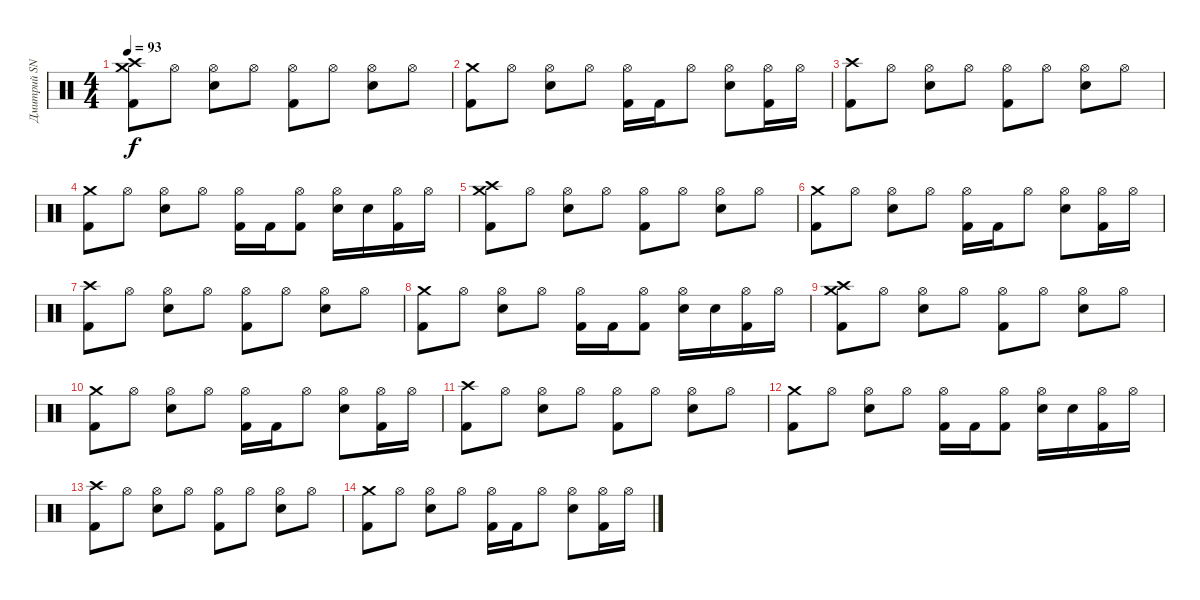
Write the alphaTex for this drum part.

\track ("Дмитрий SNAKE Хакимов" "Дмитрий SN") {instrument percussion}
\staff {score}
\articulation defaults
\ts (4 4)
\tempo 93
\clef neutral
\ks c
("Crash high (hit)" "Crash medium (hit)" "Kick (hit) 2").8{dy f} "Hi-Hat (open)".8 ("Hi-Hat (open)" "Electric Snare (hit)").8 "Hi-Hat (open)".8 ("Hi-Hat (open)" "Kick (hit) 2").8 "Hi-Hat (open)".8 ("Hi-Hat (open)" "Electric Snare (hit)").8 "Hi-Hat (open)".8 |
("Crash medium (hit)" "Kick (hit) 2").8 "Hi-Hat (open)".8 ("Hi-Hat (open)" "Electric Snare (hit)").8 "Hi-Hat (open)".8 ("Hi-Hat (open)" "Kick (hit) 2").16 "Kick (hit) 2".16 "Hi-Hat (open)".8 ("Hi-Hat (open)" "Electric Snare (hit)").8 ("Hi-Hat (open)" "Kick (hit) 2").16 "Hi-Hat (open)".16 |
("Crash high (hit)" "Kick (hit) 2").8 "Hi-Hat (open)".8 ("Hi-Hat (open)" "Electric Snare (hit)").8 "Hi-Hat (open)".8 ("Hi-Hat (open)" "Kick (hit) 2").8 "Hi-Hat (open)".8 ("Hi-Hat (open)" "Electric Snare (hit)").8 "Hi-Hat (open)".8 |
("Crash medium (hit)" "Kick (hit) 2").8 "Hi-Hat (open)".8 ("Hi-Hat (open)" "Snare (hit) 2").8 "Hi-Hat (open)".8 ("Hi-Hat (open)" "Kick (hit) 2").16 "Kick (hit) 2".16 ("Hi-Hat (open)" "Kick (hit) 2").8 ("Hi-Hat (open)" "Electric Snare (hit)").16 "Electric Snare (hit)".16 ("Hi-Hat (open)" "Kick (hit) 2").16 "Hi-Hat (open)".16 |
("Crash high (hit)" "Crash medium (hit)" "Kick (hit) 2").8 "Hi-Hat (open)".8 ("Hi-Hat (open)" "Electric Snare (hit)").8 "Hi-Hat (open)".8 ("Hi-Hat (open)" "Kick (hit) 2").8 "Hi-Hat (open)".8 ("Hi-Hat (open)" "Electric Snare (hit)").8 "Hi-Hat (open)".8 |
("Crash medium (hit)" "Kick (hit) 2").8 "Hi-Hat (open)".8 ("Hi-Hat (open)" "Electric Snare (hit)").8 "Hi-Hat (open)".8 ("Hi-Hat (open)" "Kick (hit) 2").16 "Kick (hit) 2".16 "Hi-Hat (open)".8 ("Hi-Hat (open)" "Electric Snare (hit)").8 ("Hi-Hat (open)" "Kick (hit) 2").16 "Hi-Hat (open)".16 |
("Crash high (hit)" "Kick (hit) 2").8 "Hi-Hat (open)".8 ("Hi-Hat (open)" "Electric Snare (hit)").8 "Hi-Hat (open)".8 ("Hi-Hat (open)" "Kick (hit) 2").8 "Hi-Hat (open)".8 ("Hi-Hat (open)" "Electric Snare (hit)").8 "Hi-Hat (open)".8 |
("Crash medium (hit)" "Kick (hit) 2").8 "Hi-Hat (open)".8 ("Hi-Hat (open)" "Snare (hit) 2").8 "Hi-Hat (open)".8 ("Hi-Hat (open)" "Kick (hit) 2").16 "Kick (hit) 2".16 ("Hi-Hat (open)" "Kick (hit) 2").8 ("Hi-Hat (open)" "Electric Snare (hit)").16 "Electric Snare (hit)".16 ("Hi-Hat (open)" "Kick (hit) 2").16 "Hi-Hat (open)".16 |
("Crash high (hit)" "Crash medium (hit)" "Kick (hit) 2").8 "Hi-Hat (open)".8 ("Hi-Hat (open)" "Electric Snare (hit)").8 "Hi-Hat (open)".8 ("Hi-Hat (open)" "Kick (hit) 2").8 "Hi-Hat (open)".8 ("Hi-Hat (open)" "Electric Snare (hit)").8 "Hi-Hat (open)".8 |
("Crash medium (hit)" "Kick (hit) 2").8 "Hi-Hat (open)".8 ("Hi-Hat (open)" "Electric Snare (hit)").8 "Hi-Hat (open)".8 ("Hi-Hat (open)" "Kick (hit) 2").16 "Kick (hit) 2".16 "Hi-Hat (open)".8 ("Hi-Hat (open)" "Electric Snare (hit)").8 ("Hi-Hat (open)" "Kick (hit) 2").16 "Hi-Hat (open)".16 |
("Crash high (hit)" "Kick (hit) 2").8 "Hi-Hat (open)".8 ("Hi-Hat (open)" "Electric Snare (hit)").8 "Hi-Hat (open)".8 ("Hi-Hat (open)" "Kick (hit) 2").8 "Hi-Hat (open)".8 ("Hi-Hat (open)" "Electric Snare (hit)").8 "Hi-Hat (open)".8 |
("Crash medium (hit)" "Kick (hit) 2").8 "Hi-Hat (open)".8 ("Hi-Hat (open)" "Snare (hit) 2").8 "Hi-Hat (open)".8 ("Hi-Hat (open)" "Kick (hit) 2").16 "Kick (hit) 2".16 ("Hi-Hat (open)" "Kick (hit) 2").8 ("Hi-Hat (open)" "Electric Snare (hit)").16 "Electric Snare (hit)".16 ("Hi-Hat (open)" "Kick (hit) 2").16 "Hi-Hat (open)".16 |
("Crash high (hit)" "Kick (hit) 2").8 "Hi-Hat (open)".8 ("Hi-Hat (open)" "Electric Snare (hit)").8 "Hi-Hat (open)".8 ("Hi-Hat (open)" "Kick (hit) 2").8 "Hi-Hat (open)".8 ("Hi-Hat (open)" "Electric Snare (hit)").8 "Hi-Hat (open)".8 |
("Crash medium (hit)" "Kick (hit) 2").8 "Hi-Hat (open)".8 ("Hi-Hat (open)" "Electric Snare (hit)").8 "Hi-Hat (open)".8 ("Hi-Hat (open)" "Kick (hit) 2").16 "Kick (hit) 2".16 "Hi-Hat (open)".8 ("Hi-Hat (open)" "Electric Snare (hit)").8 ("Hi-Hat (open)" "Kick (hit) 2").16 "Hi-Hat (open)".16
